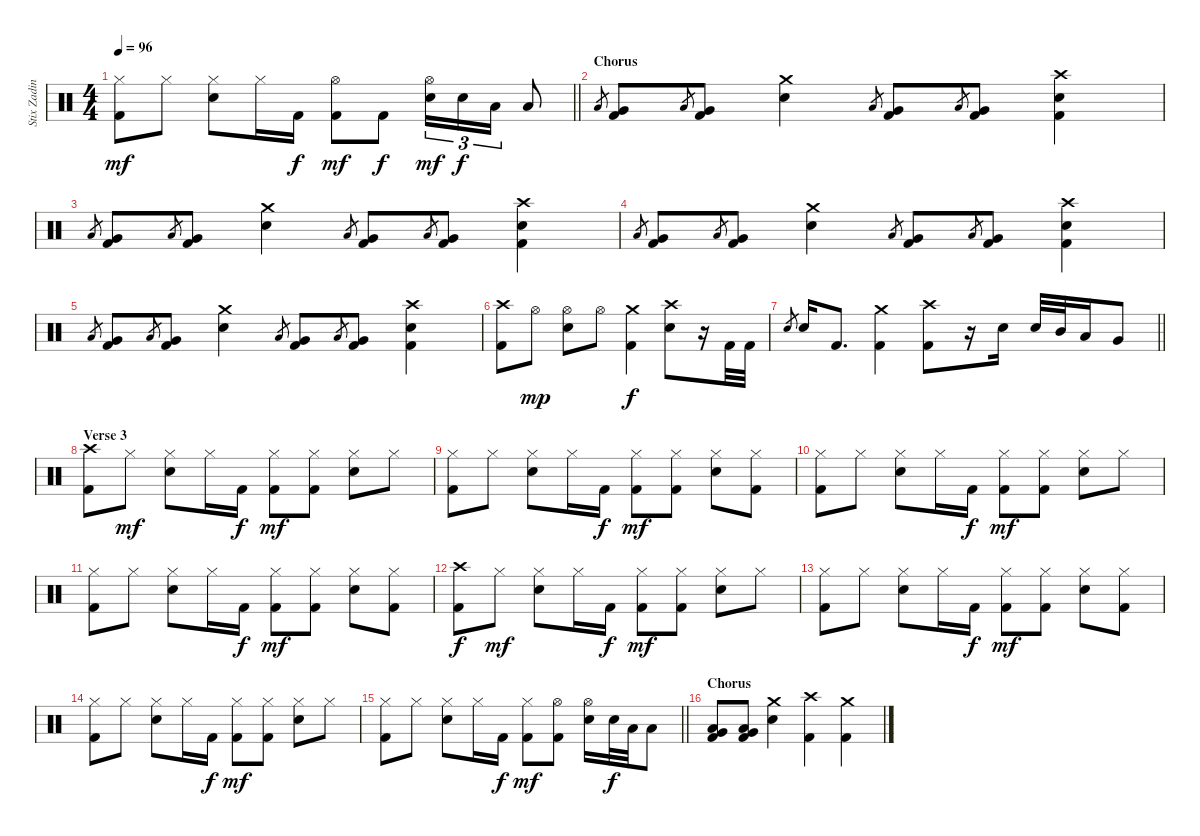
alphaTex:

\track ("Stix Zadinia" "Stix Zadin") {instrument percussion}
\staff {score}
\articulation defaults
\ts (4 4)
\tempo 96
\clef neutral
\barLineRight lightlight
\ks c
("Hi-Hat (closed)" "Kick (hit) 2").8{dy mf} "Hi-Hat (closed)".8 ("Hi-Hat (closed)" "Electric Snare (hit)").8 "Hi-Hat (closed)".16 "Kick (hit) 2".16{dy f} ("Hi-Hat (open)" "Kick (hit) 2").8{dy mf} "Kick (hit) 2".8{dy f} ("Hi-Hat (open)" "Electric Snare (hit)").16{tu (3 2) dy mf} "Electric Snare (hit)".16{tu (3 2) dy f} "Low Tom (hit)".16{tu (3 2)} "Low Tom (hit)".8 |
\section ("" "Chorus")
"Low Floor Tom (hit)".8{gr} ("Very Low Tom (hit)" "Kick (hit) 2").8 "Low Floor Tom (hit)".8{gr} ("Very Low Tom (hit)" "Kick (hit) 2").8 ("Crash medium (hit)" "Electric Snare (hit)").4 "Low Floor Tom (hit)".8{gr} ("Very Low Tom (hit)" "Kick (hit) 2").8 "Low Floor Tom (hit)".8{gr} ("Very Low Tom (hit)" "Kick (hit) 2").8 ("Crash high (hit)" "Electric Snare (hit)" "Kick (hit) 2").4 |
"Low Floor Tom (hit)".8{gr} ("Very Low Tom (hit)" "Kick (hit) 2").8 "Low Floor Tom (hit)".8{gr} ("Very Low Tom (hit)" "Kick (hit) 2").8 ("Crash medium (hit)" "Electric Snare (hit)").4 "Low Floor Tom (hit)".8{gr} ("Very Low Tom (hit)" "Kick (hit) 2").8 "Low Floor Tom (hit)".8{gr} ("Very Low Tom (hit)" "Kick (hit) 2").8 ("Crash high (hit)" "Electric Snare (hit)" "Kick (hit) 2").4 |
"Low Floor Tom (hit)".8{gr} ("Very Low Tom (hit)" "Kick (hit) 2").8 "Low Floor Tom (hit)".8{gr} ("Very Low Tom (hit)" "Kick (hit) 2").8 ("Crash medium (hit)" "Electric Snare (hit)").4 "Low Floor Tom (hit)".8{gr} ("Very Low Tom (hit)" "Kick (hit) 2").8 "Low Floor Tom (hit)".8{gr} ("Very Low Tom (hit)" "Kick (hit) 2").8 ("Crash high (hit)" "Electric Snare (hit)" "Kick (hit) 2").4 |
"Low Floor Tom (hit)".8{gr} ("Very Low Tom (hit)" "Kick (hit) 2").8 "Low Floor Tom (hit)".8{gr} ("Very Low Tom (hit)" "Kick (hit) 2").8 ("Crash medium (hit)" "Electric Snare (hit)").4 "Low Floor Tom (hit)".8{gr} ("Very Low Tom (hit)" "Kick (hit) 2").8 "Low Floor Tom (hit)".8{gr} ("Very Low Tom (hit)" "Kick (hit) 2").8 ("Crash high (hit)" "Electric Snare (hit)" "Kick (hit) 2").4 |
("Crash high (hit)" "Kick (hit) 2").8 "Hi-Hat (open)".8{dy mp} ("Hi-Hat (open)" "Electric Snare (hit)").8 "Hi-Hat (open)".8 ("Crash medium (hit)" "Kick (hit) 2").4{dy f} ("Crash high (hit)" "Electric Snare (hit)").8 r.16 "Kick (hit) 2".32 "Kick (hit) 2".32 |
\barLineRight lightlight "Electric Snare (hit)"{h}.8{gr} "Electric Snare (hit)".16 "Kick (hit) 2".8{d}
("Crash medium (hit)" "Kick (hit) 2").4 ("Crash high (hit)" "Kick (hit) 2").8 r.16 "Electric Snare (hit)".16 "Electric Snare (hit)".32 "Mid Tom (hit)".32 "Low Tom (hit)".16 "Very Low Tom (hit)".8 |
\section ("" "Verse 3")
("Crash high (hit)" "Kick (hit) 2").8 "Hi-Hat (closed)".8{dy mf} ("Hi-Hat (closed)" "Electric Snare (hit)").8 "Hi-Hat (closed)".16 "Kick (hit) 2".16{dy f} ("Hi-Hat (closed)" "Kick (hit) 2").8{dy mf} ("Hi-Hat (closed)" "Kick (hit) 2").8 ("Hi-Hat (closed)" "Electric Snare (hit)").8 "Hi-Hat (closed)".8 |
("Hi-Hat (closed)" "Kick (hit) 2").8 "Hi-Hat (closed)".8 ("Hi-Hat (closed)" "Electric Snare (hit)").8 "Hi-Hat (closed)".16 "Kick (hit) 2".16{dy f} ("Hi-Hat (closed)" "Kick (hit) 2").8{dy mf} ("Hi-Hat (closed)" "Kick (hit) 2").8 ("Hi-Hat (closed)" "Electric Snare (hit)").8 ("Hi-Hat (closed)" "Kick (hit) 2").8 |
("Hi-Hat (closed)" "Kick (hit) 2").8 "Hi-Hat (closed)".8 ("Hi-Hat (closed)" "Electric Snare (hit)").8 "Hi-Hat (closed)".16 "Kick (hit) 2".16{dy f} ("Hi-Hat (closed)" "Kick (hit) 2").8{dy mf} ("Hi-Hat (closed)" "Kick (hit) 2").8 ("Hi-Hat (closed)" "Electric Snare (hit)").8 "Hi-Hat (closed)".8 |
("Hi-Hat (closed)" "Kick (hit) 2").8 "Hi-Hat (closed)".8 ("Hi-Hat (closed)" "Electric Snare (hit)").8 "Hi-Hat (closed)".16 "Kick (hit) 2".16{dy f} ("Hi-Hat (closed)" "Kick (hit) 2").8{dy mf} ("Hi-Hat (closed)" "Kick (hit) 2").8 ("Hi-Hat (closed)" "Electric Snare (hit)").8 ("Hi-Hat (closed)" "Kick (hit) 2").8 |
("Crash high (hit)" "Kick (hit) 2").8{dy f} "Hi-Hat (closed)".8{dy mf} ("Hi-Hat (closed)" "Electric Snare (hit)").8 "Hi-Hat (closed)".16 "Kick (hit) 2".16{dy f} ("Hi-Hat (closed)" "Kick (hit) 2").8{dy mf} ("Hi-Hat (closed)" "Kick (hit) 2").8 ("Hi-Hat (closed)" "Electric Snare (hit)").8 "Hi-Hat (closed)".8 |
("Hi-Hat (closed)" "Kick (hit) 2").8 "Hi-Hat (closed)".8 ("Hi-Hat (closed)" "Electric Snare (hit)").8 "Hi-Hat (closed)".16 "Kick (hit) 2".16{dy f} ("Hi-Hat (closed)" "Kick (hit) 2").8{dy mf} ("Hi-Hat (closed)" "Kick (hit) 2").8 ("Hi-Hat (closed)" "Electric Snare (hit)").8 ("Hi-Hat (closed)" "Kick (hit) 2").8 |
("Hi-Hat (closed)" "Kick (hit) 2").8 "Hi-Hat (closed)".8 ("Hi-Hat (closed)" "Electric Snare (hit)").8 "Hi-Hat (closed)".16 "Kick (hit) 2".16{dy f} ("Hi-Hat (closed)" "Kick (hit) 2").8{dy mf} ("Hi-Hat (closed)" "Kick (hit) 2").8 ("Hi-Hat (closed)" "Electric Snare (hit)").8 "Hi-Hat (closed)".8 |
\barLineRight lightlight
("Hi-Hat (closed)" "Kick (hit) 2").8 "Hi-Hat (closed)".8 ("Hi-Hat (closed)" "Electric Snare (hit)").8 "Hi-Hat (closed)".16 "Kick (hit) 2".16{dy f} ("Hi-Hat (closed)" "Kick (hit) 2").8{dy mf} ("Hi-Hat (open)" "Kick (hit) 2").8 ("Hi-Hat (open)" "Electric Snare (hit)").16 "Electric Snare (hit)".32{dy f} "Low Tom (hit)".32 "Low Tom (hit)".8 |
\section ("" "Chorus")
("Very Low Tom (hit)" "Low Floor Tom (hit)" "Kick (hit) 2").8 ("Very Low Tom (hit)" "Low Floor Tom (hit)" "Kick (hit) 2").8 ("Crash medium (hit)" "Electric Snare (hit)").4 ("Crash high (hit)" "Kick (hit) 2").4 ("Crash medium (hit)" "Kick (hit) 2").4
